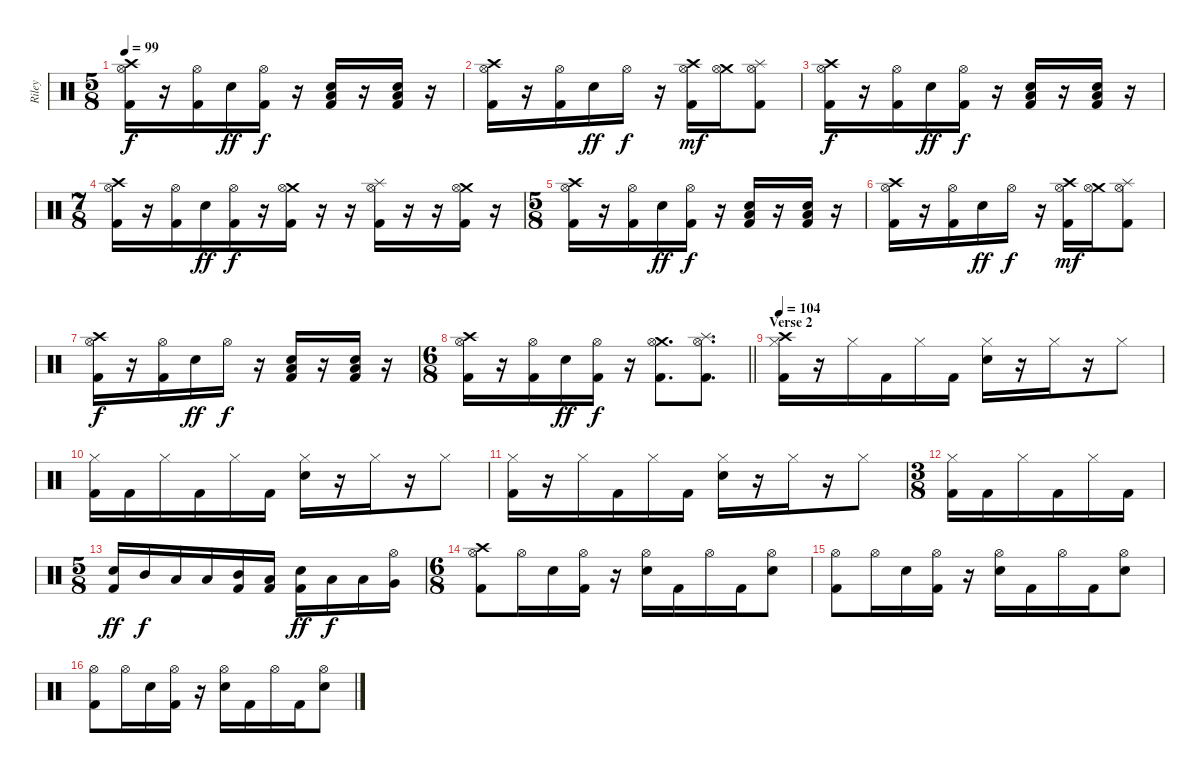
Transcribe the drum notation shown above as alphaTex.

\track ("Riley" "Riley") {instrument percussion}
\staff {score}
\articulation defaults
\ts (5 8)
\tempo 99
\clef neutral
\ks c
("Crash high (hit)" "Hi-Hat (open)" "Kick (hit) 2").16{dy f} r.16 ("Hi-Hat (open)" "Kick (hit) 2").16 "Electric Snare (hit)".16{dy ff} ("Hi-Hat (open)" "Kick (hit) 2").16{dy f} r.16 ("Low Tom (hit)" "Electric Snare (hit)" "Kick (hit) 2").16 r.16 ("Low Tom (hit)" "Electric Snare (hit)" "Kick (hit) 2").16 r.16 |
("Crash high (hit)" "Hi-Hat (open)" "Kick (hit) 2").16 r.16 ("Hi-Hat (open)" "Kick (hit) 2").16 "Electric Snare (hit)".16{dy ff} "Hi-Hat (open)".16{dy f} r.16 ("Crash high (hit)" "Hi-Hat (open)" "Kick (hit) 2").16{dy mf} ("Crash medium (hit)" "Hi-Hat (open)").16 ("Splash (hit)" "Hi-Hat (open)" "Kick (hit) 2").8 |
("Crash high (hit)" "Hi-Hat (open)" "Kick (hit) 2").16{dy f} r.16 ("Hi-Hat (open)" "Kick (hit) 2").16 "Electric Snare (hit)".16{dy ff} ("Hi-Hat (open)" "Kick (hit) 2").16{dy f} r.16 ("Low Tom (hit)" "Electric Snare (hit)" "Kick (hit) 2").16 r.16 ("Low Tom (hit)" "Electric Snare (hit)" "Kick (hit) 2").16 r.16 |
\ts (7 8)
("Crash high (hit)" "Hi-Hat (open)" "Kick (hit) 2").16 r.16 ("Hi-Hat (open)" "Kick (hit) 2").16 "Electric Snare (hit)".16{dy ff} ("Hi-Hat (open)" "Kick (hit) 2").16{dy f} r.16 ("Crash medium (hit)" "Hi-Hat (open)" "Kick (hit) 2").16 r.16 r.16 ("Splash (hit)" "Hi-Hat (open)" "Kick (hit) 2").16 r.16 r.16 ("Crash medium (hit)" "Hi-Hat (open)" "Kick (hit) 2").16 r.16 |
\ts (5 8)
("Crash high (hit)" "Hi-Hat (open)" "Kick (hit) 2").16 r.16 ("Hi-Hat (open)" "Kick (hit) 2").16 "Electric Snare (hit)".16{dy ff} ("Hi-Hat (open)" "Kick (hit) 2").16{dy f} r.16 ("Low Tom (hit)" "Electric Snare (hit)" "Kick (hit) 2").16 r.16 ("Low Tom (hit)" "Electric Snare (hit)" "Kick (hit) 2").16 r.16 |
("Crash high (hit)" "Hi-Hat (open)" "Kick (hit) 2").16 r.16 ("Hi-Hat (open)" "Kick (hit) 2").16 "Electric Snare (hit)".16{dy ff} "Hi-Hat (open)".16{dy f} r.16 ("Crash high (hit)" "Hi-Hat (open)" "Kick (hit) 2").16{dy mf} ("Crash medium (hit)" "Hi-Hat (open)").16 ("Splash (hit)" "Hi-Hat (open)" "Kick (hit) 2").8 |
("Crash high (hit)" "Hi-Hat (open)" "Kick (hit) 2").16{dy f} r.16 ("Hi-Hat (open)" "Kick (hit) 2").16 "Electric Snare (hit)".16{dy ff} "Hi-Hat (open)".16{dy f} r.16 ("Low Tom (hit)" "Electric Snare (hit)" "Kick (hit) 2").16 r.16 ("Low Tom (hit)" "Electric Snare (hit)" "Kick (hit) 2").16 r.16 |
\ts (6 8)
\barLineRight lightlight
("Crash high (hit)" "Hi-Hat (open)" "Kick (hit) 2").16 r.16 ("Hi-Hat (open)" "Kick (hit) 2").16 "Electric Snare (hit)".16{dy ff} ("Hi-Hat (open)" "Kick (hit) 2").16{dy f} r.16 ("Crash medium (hit)" "Hi-Hat (open)" "Kick (hit) 2").8{d} ("Splash (hit)" "Hi-Hat (open)" "Kick (hit) 2").8{d} |
\section ("" "Verse 2")
\tempo 104
("Crash high (hit)" "Hi-Hat (closed)" "Kick (hit) 2").16 r.16 "Hi-Hat (closed)".16 "Kick (hit) 2".16 "Hi-Hat (closed)".16 "Kick (hit) 2".16 ("Hi-Hat (closed)" "Electric Snare (hit)").16 r.16 "Hi-Hat (closed)".16 r.16 "Hi-Hat (closed)".8 |
("Hi-Hat (closed)" "Kick (hit) 2").16 "Kick (hit) 2".16 "Hi-Hat (closed)".16 "Kick (hit) 2".16 "Hi-Hat (closed)".16 "Kick (hit) 2".16 ("Hi-Hat (closed)" "Electric Snare (hit)").16 r.16 "Hi-Hat (closed)".16 r.16 "Hi-Hat (closed)".8 |
("Hi-Hat (closed)" "Kick (hit) 2").16 r.16 "Hi-Hat (closed)".16 "Kick (hit) 2".16 "Hi-Hat (closed)".16 "Kick (hit) 2".16 ("Hi-Hat (closed)" "Electric Snare (hit)").16 r.16 "Hi-Hat (closed)".16 r.16 "Hi-Hat (closed)".8 |
\ts (3 8)
("Hi-Hat (closed)" "Kick (hit) 2").16 "Kick (hit) 2".16 "Hi-Hat (closed)".16 "Kick (hit) 2".16 "Hi-Hat (closed)".16 "Kick (hit) 2".16 |
\ts (5 8)
("Electric Snare (hit)" "Kick (hit) 2").16{dy ff} "Mid Tom (hit)".16{dy f} "Low Tom (hit)".16 "Low Tom (hit)".16 ("Mid Tom (hit)" "Kick (hit) 2").16 ("Low Tom (hit)" "Kick (hit) 2").16 ("Electric Snare (hit)" "Kick (hit) 2").16{dy ff} "Low Tom (hit)".16{dy f} "Low Tom (hit)".16 ("Hi-Hat (open)" "Very Low Tom (hit)").16 |
\ts (6 8)
("Crash high (hit)" "Hi-Hat (open)" "Kick (hit) 2").8 "Hi-Hat (open)".16 "Electric Snare (hit)".16 ("Hi-Hat (open)" "Kick (hit) 2").16 r.16 ("Hi-Hat (open)" "Electric Snare (hit)").16 "Kick (hit) 2".16 "Hi-Hat (open)".16 "Kick (hit) 2".16 ("Hi-Hat (open)" "Electric Snare (hit)").8 |
("Hi-Hat (open)" "Kick (hit) 2").8 "Hi-Hat (open)".16 "Electric Snare (hit)".16 ("Hi-Hat (open)" "Kick (hit) 2").16 r.16 ("Hi-Hat (open)" "Electric Snare (hit)").16 "Kick (hit) 2".16 "Hi-Hat (open)".16 "Kick (hit) 2".16 ("Hi-Hat (open)" "Electric Snare (hit)").8 |
("Hi-Hat (open)" "Kick (hit) 2").8 "Hi-Hat (open)".16 "Electric Snare (hit)".16 ("Hi-Hat (open)" "Kick (hit) 2").16 r.16 ("Hi-Hat (open)" "Electric Snare (hit)").16 "Kick (hit) 2".16 "Hi-Hat (open)".16 "Kick (hit) 2".16 ("Hi-Hat (open)" "Electric Snare (hit)").8
